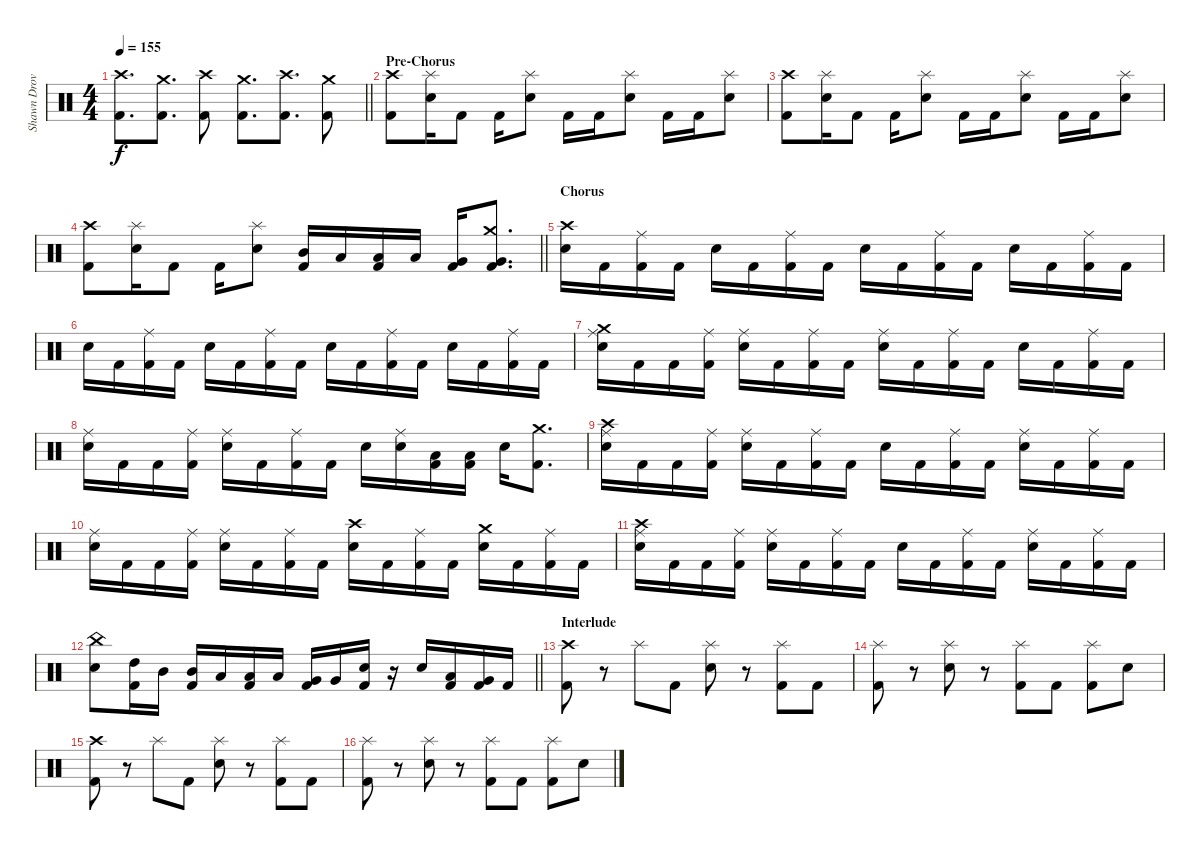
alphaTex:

\track ("Shawn Drover" "Shawn Drov") {instrument percussion}
\staff {score}
\articulation defaults
\ts (4 4)
\tempo 155
\clef neutral
\barLineRight lightlight
\ks c
("Crash high (hit)" "Kick (hit) 2").8{d dy f} ("Crash medium (hit)" "Kick (hit) 2").8{d} ("Crash high (hit)" "Kick (hit) 2").8 ("Crash medium (hit)" "Kick (hit) 2").8{d} ("Crash high (hit)" "Kick (hit) 2").8{d} ("Crash medium (hit)" "Kick (hit) 2").8 |
\section ("" "Pre-Chorus")
("Crash high (hit)" "Kick (hit) 2").8 ("Splash (hit)" "Snare (hit) 2").16 "Kick (hit) 2".8 "Kick (hit) 2".16 ("Splash (hit)" "Snare (hit) 2").8 "Kick (hit) 2".16 "Kick (hit) 2".16 ("Splash (hit)" "Snare (hit) 2").8 "Kick (hit) 2".16 "Kick (hit) 2".16 ("Splash (hit)" "Snare (hit) 2").8 |
("Crash high (hit)" "Kick (hit) 2").8 ("Splash (hit)" "Snare (hit) 2").16 "Kick (hit) 2".8 "Kick (hit) 2".16 ("Splash (hit)" "Snare (hit) 2").8 "Kick (hit) 2".16 "Kick (hit) 2".16 ("Splash (hit)" "Snare (hit) 2").8 "Kick (hit) 2".16 "Kick (hit) 2".16 ("Splash (hit)" "Snare (hit) 2").8 |
\barLineRight lightlight
("Crash high (hit)" "Kick (hit) 2").8 ("Splash (hit)" "Snare (hit) 2").16 "Kick (hit) 2".8 "Kick (hit) 2".16 ("Splash (hit)" "Snare (hit) 2").8 ("Mid Tom (hit)" "Kick (hit) 2").16 "Low Tom (hit)".16 ("Low Tom (hit)" "Kick (hit) 2").16 "Low Tom (hit)".16 ("Very Low Tom (hit)" "Kick (hit) 2").16 ("Crash medium (hit)" "Very Low Tom (hit)" "Kick (hit) 2").8{d} |
\section ("" "Chorus")
("Crash high (hit)" "Snare (hit) 2").16 "Kick (hit) 2".16 ("Ride (middle)" "Kick (hit) 2").16 "Kick (hit) 2".16 "Snare (hit) 2".16 "Kick (hit) 2".16 ("Ride (middle)" "Kick (hit) 2").16 "Kick (hit) 2".16 "Snare (hit) 2".16 "Kick (hit) 2".16 ("Ride (middle)" "Kick (hit) 2").16 "Kick (hit) 2".16 "Snare (hit) 2".16 "Kick (hit) 2".16 ("Ride (middle)" "Kick (hit) 2").16 "Kick (hit) 2".16 |
"Snare (hit) 2".16 "Kick (hit) 2".16 ("Ride (middle)" "Kick (hit) 2").16 "Kick (hit) 2".16 "Snare (hit) 2".16 "Kick (hit) 2".16 ("Ride (middle)" "Kick (hit) 2").16 "Kick (hit) 2".16 "Snare (hit) 2".16 "Kick (hit) 2".16 ("Ride (middle)" "Kick (hit) 2").16 "Kick (hit) 2".16 "Snare (hit) 2".16 "Kick (hit) 2".16 ("Ride (middle)" "Kick (hit) 2").16 "Kick (hit) 2".16 |
("Crash medium (hit)" "Ride (middle)" "Snare (hit) 2").16 "Kick (hit) 2".16 "Kick (hit) 2".16 ("Ride (middle)" "Kick (hit) 2").16 ("Ride (middle)" "Snare (hit) 2").16 "Kick (hit) 2".16 ("Ride (middle)" "Kick (hit) 2").16 "Kick (hit) 2".16 ("Ride (middle)" "Snare (hit) 2").16 "Kick (hit) 2".16 ("Ride (middle)" "Kick (hit) 2").16 "Kick (hit) 2".16 "Snare (hit) 2".16 "Kick (hit) 2".16 ("Ride (middle)" "Kick (hit) 2").16 "Kick (hit) 2".16 |
("Ride (middle)" "Snare (hit) 2").16 "Kick (hit) 2".16 "Kick (hit) 2".16 ("Ride (middle)" "Kick (hit) 2").16 ("Ride (middle)" "Snare (hit) 2").16 "Kick (hit) 2".16 ("Ride (middle)" "Kick (hit) 2").16 "Kick (hit) 2".16 "Snare (hit) 2".16 ("Ride (middle)" "Snare (hit) 2").16 ("Low Tom (hit)" "Kick (hit) 2").16 ("Low Tom (hit)" "Kick (hit) 2").16 "Snare (hit) 2".16 ("Crash medium (hit)" "Kick (hit) 2").8{d} |
("Crash high (hit)" "Ride (middle)" "Snare (hit) 2").16 "Kick (hit) 2".16 "Kick (hit) 2".16 ("Ride (middle)" "Kick (hit) 2").16 ("Ride (middle)" "Snare (hit) 2").16 "Kick (hit) 2".16 ("Ride (middle)" "Kick (hit) 2").16 "Kick (hit) 2".16 "Snare (hit) 2".16 "Kick (hit) 2".16 ("Ride (middle)" "Kick (hit) 2").16 "Kick (hit) 2".16 ("Ride (middle)" "Snare (hit) 2").16 "Kick (hit) 2".16 ("Ride (middle)" "Kick (hit) 2").16 "Kick (hit) 2".16 |
("Ride (middle)" "Snare (hit) 2").16 "Kick (hit) 2".16 "Kick (hit) 2".16 ("Ride (middle)" "Kick (hit) 2").16 ("Ride (middle)" "Snare (hit) 2").16 "Kick (hit) 2".16 ("Ride (middle)" "Kick (hit) 2").16 "Kick (hit) 2".16 ("Crash high (hit)" "Snare (hit) 2").16 "Kick (hit) 2".16 ("Ride (middle)" "Kick (hit) 2").16 "Kick (hit) 2".16 ("Crash medium (hit)" "Snare (hit) 2").16 "Kick (hit) 2".16 ("Ride (middle)" "Kick (hit) 2").16 "Kick (hit) 2".16 |
("Crash high (hit)" "Ride (middle)" "Snare (hit) 2").16 "Kick (hit) 2".16 "Kick (hit) 2".16 ("Ride (middle)" "Kick (hit) 2").16 ("Ride (middle)" "Snare (hit) 2").16 "Kick (hit) 2".16 ("Ride (middle)" "Kick (hit) 2").16 "Kick (hit) 2".16 "Snare (hit) 2".16 "Kick (hit) 2".16 ("Ride (middle)" "Kick (hit) 2").16 "Kick (hit) 2".16 ("Ride (middle)" "Snare (hit) 2").16 "Kick (hit) 2".16 ("Ride (middle)" "Kick (hit) 2").16 "Kick (hit) 2".16 |
\barLineRight lightlight
("China (hit)" "Snare (hit) 2").8 ("High Tom (hit)" "Kick (hit) 2").16 "Mid Tom (hit)".16 ("Mid Tom (hit)" "Kick (hit) 2").16 "Low Tom (hit)".16 ("Low Tom (hit)" "Kick (hit) 2").16 "Low Tom (hit)".16 ("Very Low Tom (hit)" "Kick (hit) 2").16 "Very Low Tom (hit)".16 ("Snare (hit) 2" "Kick (hit) 2").16 r.16 "Snare (hit) 2".16 ("Low Tom (hit)" "Kick (hit) 2").16 ("Very Low Tom (hit)" "Kick (hit) 2").16 "Kick (hit) 2".16 |
\section ("" "Interlude")
("Crash high (hit)" "Kick (hit) 2").8 r.8 "Splash (hit)".8 "Kick (hit) 2".8 ("Splash (hit)" "Snare (hit) 2").8 r.8 ("Splash (hit)" "Kick (hit) 2").8 "Kick (hit) 2".8 |
("Splash (hit)" "Kick (hit) 2").8 r.8 ("Splash (hit)" "Snare (hit) 2").8 r.8 ("Splash (hit)" "Kick (hit) 2").8 "Kick (hit) 2".8 ("Splash (hit)" "Kick (hit) 2").8 "Snare (hit) 2".8 |
("Crash high (hit)" "Kick (hit) 2").8 r.8 "Splash (hit)".8 "Kick (hit) 2".8 ("Splash (hit)" "Snare (hit) 2").8 r.8 ("Splash (hit)" "Kick (hit) 2").8 "Kick (hit) 2".8 |
("Splash (hit)" "Kick (hit) 2").8 r.8 ("Splash (hit)" "Snare (hit) 2").8 r.8 ("Splash (hit)" "Kick (hit) 2").8 "Kick (hit) 2".8 ("Splash (hit)" "Kick (hit) 2").8 "Snare (hit) 2".8
